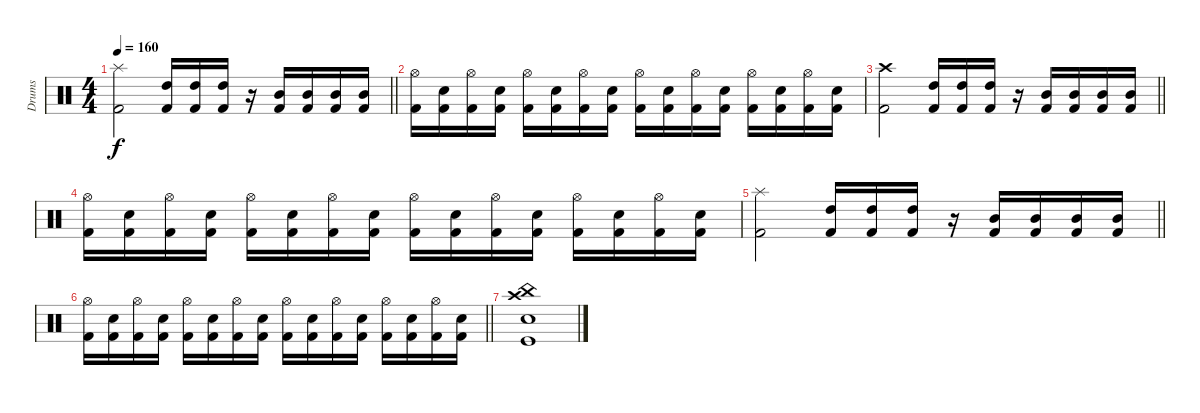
\track ("Drums" "Drums") {instrument percussion}
\staff {score}
\articulation defaults
\ts (4 4)
\tempo 160
\clef neutral
\barLineRight lightlight
\ks c
("Kick (hit) 2" "Splash (hit)").2{dy f} ("Kick (hit) 2" "High Tom (hit)").16 ("Kick (hit) 2" "High Tom (hit)").16 ("Kick (hit) 2" "High Tom (hit)").16 r.16 ("Kick (hit) 2" "Mid Tom (hit)").16 ("Kick (hit) 2" "Mid Tom (hit)").16 ("Kick (hit) 2" "Mid Tom (hit)").16 ("Kick (hit) 2" "Mid Tom (hit)").16 |
("Kick (hit) 2" "Hi-Hat (open)").16 ("Kick (hit) 2" "Snare (hit) 2").16 ("Kick (hit) 2" "Hi-Hat (open)").16 ("Kick (hit) 2" "Snare (hit) 2").16 ("Kick (hit) 2" "Hi-Hat (open)").16 ("Kick (hit) 2" "Snare (hit) 2").16 ("Kick (hit) 2" "Hi-Hat (open)").16 ("Kick (hit) 2" "Snare (hit) 2").16 ("Kick (hit) 2" "Hi-Hat (open)").16 ("Kick (hit) 2" "Snare (hit) 2").16 ("Kick (hit) 2" "Hi-Hat (open)").16 ("Kick (hit) 2" "Snare (hit) 2").16 ("Kick (hit) 2" "Hi-Hat (open)").16 ("Kick (hit) 2" "Snare (hit) 2").16 ("Kick (hit) 2" "Hi-Hat (open)").16 ("Kick (hit) 2" "Snare (hit) 2").16 |
\barLineRight lightlight
("Kick (hit) 2" "Crash high (hit)").2 ("Kick (hit) 2" "High Tom (hit)").16 ("Kick (hit) 2" "High Tom (hit)").16 ("Kick (hit) 2" "High Tom (hit)").16 r.16 ("Kick (hit) 2" "Mid Tom (hit)").16 ("Kick (hit) 2" "Mid Tom (hit)").16 ("Kick (hit) 2" "Mid Tom (hit)").16 ("Kick (hit) 2" "Mid Tom (hit)").16 |
("Kick (hit) 2" "Hi-Hat (open)").16 ("Kick (hit) 2" "Snare (hit) 2").16 ("Kick (hit) 2" "Hi-Hat (open)").16 ("Kick (hit) 2" "Snare (hit) 2").16 ("Kick (hit) 2" "Hi-Hat (open)").16 ("Kick (hit) 2" "Snare (hit) 2").16 ("Kick (hit) 2" "Hi-Hat (open)").16 ("Kick (hit) 2" "Snare (hit) 2").16 ("Kick (hit) 2" "Hi-Hat (open)").16 ("Kick (hit) 2" "Snare (hit) 2").16 ("Kick (hit) 2" "Hi-Hat (open)").16 ("Kick (hit) 2" "Snare (hit) 2").16 ("Kick (hit) 2" "Hi-Hat (open)").16 ("Kick (hit) 2" "Snare (hit) 2").16 ("Kick (hit) 2" "Hi-Hat (open)").16 ("Kick (hit) 2" "Snare (hit) 2").16 |
\barLineRight lightlight
("Kick (hit) 2" "Splash (hit)").2 ("Kick (hit) 2" "High Tom (hit)").16 ("Kick (hit) 2" "High Tom (hit)").16 ("Kick (hit) 2" "High Tom (hit)").16 r.16 ("Kick (hit) 2" "Mid Tom (hit)").16 ("Kick (hit) 2" "Mid Tom (hit)").16 ("Kick (hit) 2" "Mid Tom (hit)").16 ("Kick (hit) 2" "Mid Tom (hit)").16 |
\barLineRight lightlight
("Kick (hit) 2" "Hi-Hat (open)").16 ("Kick (hit) 2" "Snare (hit) 2").16 ("Kick (hit) 2" "Hi-Hat (open)").16 ("Kick (hit) 2" "Snare (hit) 2").16 ("Kick (hit) 2" "Hi-Hat (open)").16 ("Kick (hit) 2" "Snare (hit) 2").16 ("Kick (hit) 2" "Hi-Hat (open)").16 ("Kick (hit) 2" "Snare (hit) 2").16 ("Kick (hit) 2" "Hi-Hat (open)").16 ("Kick (hit) 2" "Snare (hit) 2").16 ("Kick (hit) 2" "Hi-Hat (open)").16 ("Kick (hit) 2" "Snare (hit) 2").16 ("Kick (hit) 2" "Hi-Hat (open)").16 ("Kick (hit) 2" "Snare (hit) 2").16 ("Kick (hit) 2" "Hi-Hat (open)").16 ("Kick (hit) 2" "Snare (hit) 2").16 |
("Kick (hit)" "China (hit)" "Crash high (hit)" "Snare (hit) 2").1
